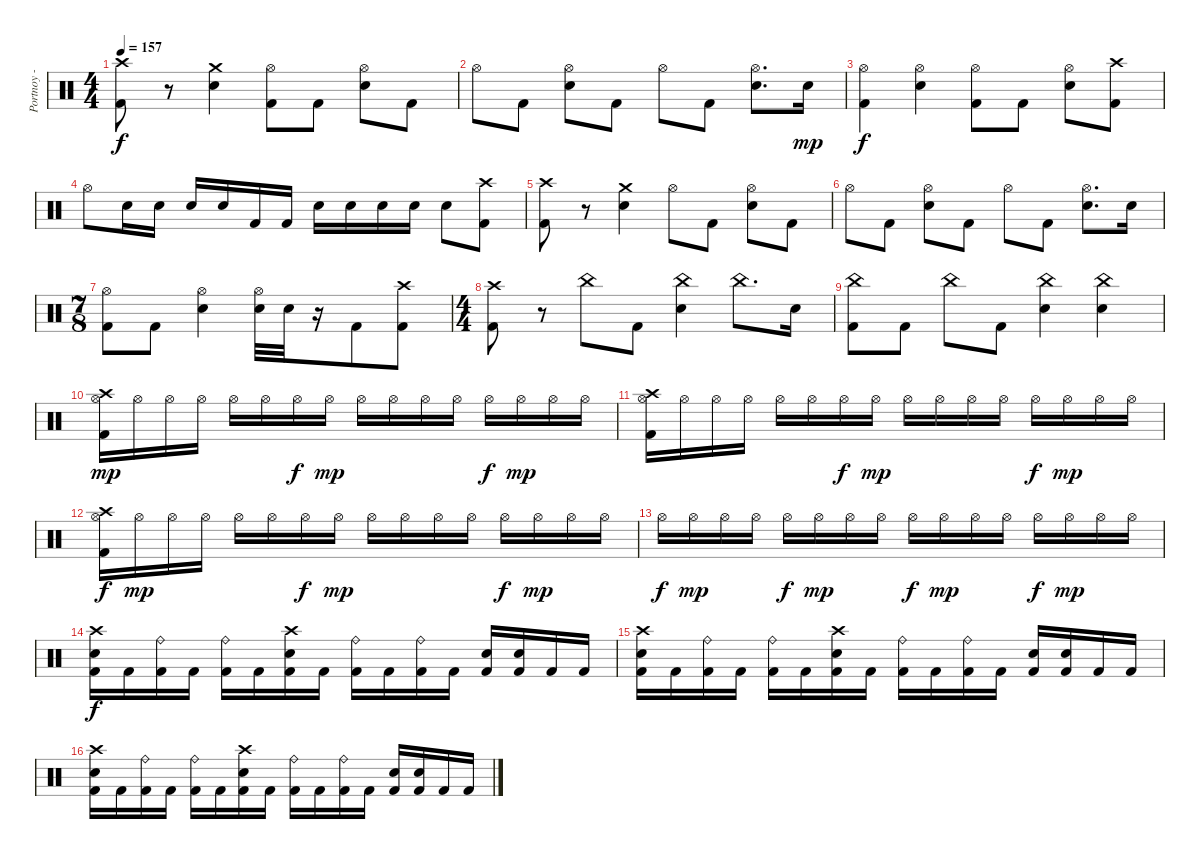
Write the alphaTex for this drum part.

\track ("Portnoy - Drums" "Portnoy - ") {instrument percussion}
\staff {score}
\articulation defaults
\ts (4 4)
\tempo 157
\clef neutral
\ks c
("Kick (hit) 2" "Crash high (hit)").8{dy f} r.8 ("Electric Snare (hit)" "Crash medium (hit)").4 ("Hi-Hat (open)" "Kick (hit) 2").8 "Kick (hit) 2".8 ("Electric Snare (hit)" "Hi-Hat (open)").8 "Kick (hit) 2".8 |
"Hi-Hat (open)".8 "Kick (hit) 2".8 ("Hi-Hat (open)" "Electric Snare (hit)").8 "Kick (hit) 2".8 "Hi-Hat (open)".8 "Kick (hit) 2".8 ("Hi-Hat (open)" "Electric Snare (hit)").8{d} "Electric Snare (hit)".16{dy mp} |
("Kick (hit) 2" "Hi-Hat (open)").4{dy f} ("Electric Snare (hit)" "Hi-Hat (open)").4 ("Kick (hit) 2" "Hi-Hat (open)").8 "Kick (hit) 2".8 ("Electric Snare (hit)" "Hi-Hat (open)").8 ("Crash high (hit)" "Kick (hit) 2").8 |
"Hi-Hat (open)".8 "Electric Snare (hit)".16 "Electric Snare (hit)".16 "Electric Snare (hit)".16 "Electric Snare (hit)".16 "Kick (hit) 2".16 "Kick (hit) 2".16 "Electric Snare (hit)".16 "Electric Snare (hit)".16 "Electric Snare (hit)".16 "Electric Snare (hit)".16 "Electric Snare (hit)".8 ("Kick (hit) 2" "Crash high (hit)").8 |
("Crash high (hit)" "Kick (hit) 2").8 r.8 ("Electric Snare (hit)" "Crash medium (hit)").4 "Hi-Hat (open)".8 "Kick (hit) 2".8 ("Electric Snare (hit)" "Hi-Hat (open)").8 "Kick (hit) 2".8 |
"Hi-Hat (open)".8 "Kick (hit) 2".8 ("Hi-Hat (open)" "Electric Snare (hit)").8 "Kick (hit) 2".8 "Hi-Hat (open)".8 "Kick (hit) 2".8 ("Hi-Hat (open)" "Electric Snare (hit)").8{d} "Electric Snare (hit)".16 |
\ts (7 8)
("Kick (hit) 2" "Hi-Hat (open)").8 "Kick (hit) 2".8 ("Electric Snare (hit)" "Hi-Hat (open)").4 ("Hi-Hat (open)" "Electric Snare (hit)").32 "Electric Snare (hit)".32 r.16 "Kick (hit) 2".8 ("Crash high (hit)" "Kick (hit) 2").8 |
\ts (4 4)
("Crash high (hit)" "Kick (hit) 2").8 r.8 "China (hit)".8 "Kick (hit) 2".8 ("China (hit)" "Electric Snare (hit)").4 "China (hit)".8{d} "Electric Snare (hit)".16 |
("Kick (hit) 2" "China (hit)").8 "Kick (hit) 2".8 "China (hit)".8 "Kick (hit) 2".8 ("China (hit)" "Electric Snare (hit)").4 ("China (hit)" "Electric Snare (hit)").4 |
("Crash high (hit)" "Kick (hit) 2" "Hi-Hat (open)").16{dy mp} "Hi-Hat (open)".16 "Hi-Hat (open)".16 "Hi-Hat (open)".16 "Hi-Hat (open)".16 "Hi-Hat (open)".16 "Hi-Hat (open)".16{dy f} "Hi-Hat (open)".16{dy mp} "Hi-Hat (open)".16 "Hi-Hat (open)".16 "Hi-Hat (open)".16 "Hi-Hat (open)".16 "Hi-Hat (open)".16{dy f} "Hi-Hat (open)".16{dy mp} "Hi-Hat (open)".16 "Hi-Hat (open)".16 |
("Crash high (hit)" "Kick (hit) 2" "Hi-Hat (open)").16 "Hi-Hat (open)".16 "Hi-Hat (open)".16 "Hi-Hat (open)".16 "Hi-Hat (open)".16 "Hi-Hat (open)".16 "Hi-Hat (open)".16{dy f} "Hi-Hat (open)".16{dy mp} "Hi-Hat (open)".16 "Hi-Hat (open)".16 "Hi-Hat (open)".16 "Hi-Hat (open)".16 "Hi-Hat (open)".16{dy f} "Hi-Hat (open)".16{dy mp} "Hi-Hat (open)".16 "Hi-Hat (open)".16 |
("Hi-Hat (open)" "Crash high (hit)" "Kick (hit) 2").16{dy f} "Hi-Hat (open)".16{dy mp} "Hi-Hat (open)".16 "Hi-Hat (open)".16 "Hi-Hat (open)".16 "Hi-Hat (open)".16 "Hi-Hat (open)".16{dy f} "Hi-Hat (open)".16{dy mp} "Hi-Hat (open)".16 "Hi-Hat (open)".16 "Hi-Hat (open)".16 "Hi-Hat (open)".16 "Hi-Hat (open)".16{dy f} "Hi-Hat (open)".16{dy mp} "Hi-Hat (open)".16 "Hi-Hat (open)".16 |
"Hi-Hat (open)".16{dy f} "Hi-Hat (open)".16{dy mp} "Hi-Hat (open)".16 "Hi-Hat (open)".16 "Hi-Hat (open)".16{dy f} "Hi-Hat (open)".16{dy mp} "Hi-Hat (open)".16 "Hi-Hat (open)".16 "Hi-Hat (open)".16{dy f} "Hi-Hat (open)".16{dy mp} "Hi-Hat (open)".16 "Hi-Hat (open)".16 "Hi-Hat (open)".16{dy f} "Hi-Hat (open)".16{dy mp} "Hi-Hat (open)".16 "Hi-Hat (open)".16 |
("Kick (hit) 2" "Electric Snare (hit)" "Crash high (hit)").16{dy f} "Kick (hit) 2".16 ("Kick (hit) 2" "Ride (bell)").16 "Kick (hit) 2".16 ("Kick (hit) 2" "Ride (bell)").16 "Kick (hit) 2".16 ("Kick (hit) 2" "Electric Snare (hit)" "Crash high (hit)").16 "Kick (hit) 2".16 ("Kick (hit) 2" "Ride (bell)").16 "Kick (hit) 2".16 ("Kick (hit) 2" "Ride (bell)").16 "Kick (hit) 2".16 ("Kick (hit) 2" "Electric Snare (hit)").16 ("Kick (hit) 2" "Electric Snare (hit)").16 "Kick (hit) 2".16 "Kick (hit) 2".16 |
("Kick (hit) 2" "Electric Snare (hit)" "Crash high (hit)").16 "Kick (hit) 2".16 ("Kick (hit) 2" "Ride (bell)").16 "Kick (hit) 2".16 ("Kick (hit) 2" "Ride (bell)").16 "Kick (hit) 2".16 ("Kick (hit) 2" "Electric Snare (hit)" "Crash high (hit)").16 "Kick (hit) 2".16 ("Kick (hit) 2" "Ride (bell)").16 "Kick (hit) 2".16 ("Kick (hit) 2" "Ride (bell)").16 "Kick (hit) 2".16 ("Kick (hit) 2" "Electric Snare (hit)").16 ("Kick (hit) 2" "Electric Snare (hit)").16 "Kick (hit) 2".16 "Kick (hit) 2".16 |
("Kick (hit) 2" "Electric Snare (hit)" "Crash high (hit)").16 "Kick (hit) 2".16 ("Kick (hit) 2" "Ride (bell)").16 "Kick (hit) 2".16 ("Kick (hit) 2" "Ride (bell)").16 "Kick (hit) 2".16 ("Kick (hit) 2" "Electric Snare (hit)" "Crash high (hit)").16 "Kick (hit) 2".16 ("Kick (hit) 2" "Ride (bell)").16 "Kick (hit) 2".16 ("Kick (hit) 2" "Ride (bell)").16 "Kick (hit) 2".16 ("Kick (hit) 2" "Electric Snare (hit)").16 ("Kick (hit) 2" "Electric Snare (hit)").16 "Kick (hit) 2".16 "Kick (hit) 2".16
